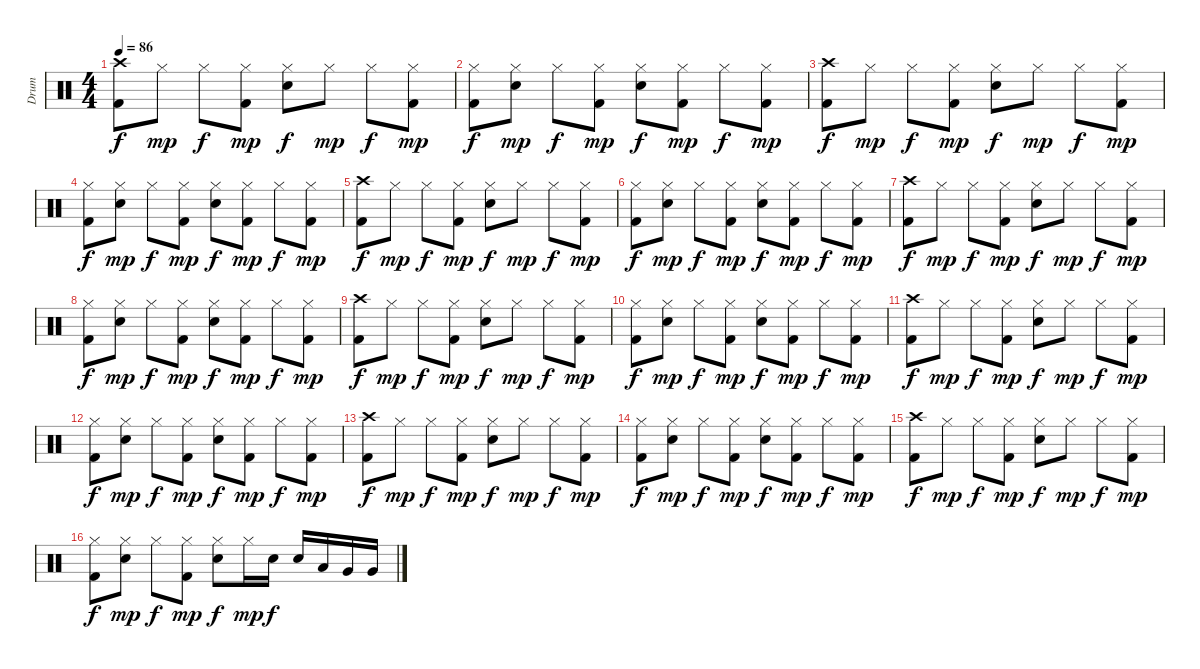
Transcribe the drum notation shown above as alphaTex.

\track ("Drum" "Drum") {instrument percussion}
\staff {score}
\articulation defaults
\ts (4 4)
\tempo 86
\clef neutral
\ks c
("Crash high (hit)" "Kick (hit) 2").8{dy f} "Hi-Hat (closed)".8{dy mp} "Hi-Hat (closed)".8{dy f} ("Hi-Hat (closed)" "Kick (hit) 2").8{dy mp} ("Hi-Hat (closed)" "Electric Snare (hit)").8{dy f} "Hi-Hat (closed)".8{dy mp} "Hi-Hat (closed)".8{dy f} ("Hi-Hat (closed)" "Kick (hit) 2").8{dy mp} |
("Hi-Hat (closed)" "Kick (hit) 2").8{dy f} ("Hi-Hat (closed)" "Electric Snare (hit)").8{dy mp} "Hi-Hat (closed)".8{dy f} ("Hi-Hat (closed)" "Kick (hit) 2").8{dy mp} ("Hi-Hat (closed)" "Electric Snare (hit)").8{dy f} ("Hi-Hat (closed)" "Kick (hit) 2").8{dy mp} "Hi-Hat (closed)".8{dy f} ("Hi-Hat (closed)" "Kick (hit) 2").8{dy mp} |
("Crash high (hit)" "Kick (hit) 2").8{dy f} "Hi-Hat (closed)".8{dy mp} "Hi-Hat (closed)".8{dy f} ("Hi-Hat (closed)" "Kick (hit) 2").8{dy mp} ("Hi-Hat (closed)" "Electric Snare (hit)").8{dy f} "Hi-Hat (closed)".8{dy mp} "Hi-Hat (closed)".8{dy f} ("Hi-Hat (closed)" "Kick (hit) 2").8{dy mp} |
("Hi-Hat (closed)" "Kick (hit) 2").8{dy f} ("Hi-Hat (closed)" "Electric Snare (hit)").8{dy mp} "Hi-Hat (closed)".8{dy f} ("Hi-Hat (closed)" "Kick (hit) 2").8{dy mp} ("Hi-Hat (closed)" "Electric Snare (hit)").8{dy f} ("Hi-Hat (closed)" "Kick (hit) 2").8{dy mp} "Hi-Hat (closed)".8{dy f} ("Hi-Hat (closed)" "Kick (hit) 2").8{dy mp} |
("Crash high (hit)" "Kick (hit) 2").8{dy f} "Hi-Hat (closed)".8{dy mp} "Hi-Hat (closed)".8{dy f} ("Hi-Hat (closed)" "Kick (hit) 2").8{dy mp} ("Hi-Hat (closed)" "Electric Snare (hit)").8{dy f} "Hi-Hat (closed)".8{dy mp} "Hi-Hat (closed)".8{dy f} ("Hi-Hat (closed)" "Kick (hit) 2").8{dy mp} |
("Hi-Hat (closed)" "Kick (hit) 2").8{dy f} ("Hi-Hat (closed)" "Electric Snare (hit)").8{dy mp} "Hi-Hat (closed)".8{dy f} ("Hi-Hat (closed)" "Kick (hit) 2").8{dy mp} ("Hi-Hat (closed)" "Electric Snare (hit)").8{dy f} ("Hi-Hat (closed)" "Kick (hit) 2").8{dy mp} "Hi-Hat (closed)".8{dy f} ("Hi-Hat (closed)" "Kick (hit) 2").8{dy mp} |
("Crash high (hit)" "Kick (hit) 2").8{dy f} "Hi-Hat (closed)".8{dy mp} "Hi-Hat (closed)".8{dy f} ("Hi-Hat (closed)" "Kick (hit) 2").8{dy mp} ("Hi-Hat (closed)" "Electric Snare (hit)").8{dy f} "Hi-Hat (closed)".8{dy mp} "Hi-Hat (closed)".8{dy f} ("Hi-Hat (closed)" "Kick (hit) 2").8{dy mp} |
("Hi-Hat (closed)" "Kick (hit) 2").8{dy f} ("Hi-Hat (closed)" "Electric Snare (hit)").8{dy mp} "Hi-Hat (closed)".8{dy f} ("Hi-Hat (closed)" "Kick (hit) 2").8{dy mp} ("Hi-Hat (closed)" "Electric Snare (hit)").8{dy f} ("Hi-Hat (closed)" "Kick (hit) 2").8{dy mp} "Hi-Hat (closed)".8{dy f} ("Hi-Hat (closed)" "Kick (hit) 2").8{dy mp} |
("Crash high (hit)" "Kick (hit) 2").8{dy f} "Hi-Hat (closed)".8{dy mp} "Hi-Hat (closed)".8{dy f} ("Hi-Hat (closed)" "Kick (hit) 2").8{dy mp} ("Hi-Hat (closed)" "Electric Snare (hit)").8{dy f} "Hi-Hat (closed)".8{dy mp} "Hi-Hat (closed)".8{dy f} ("Hi-Hat (closed)" "Kick (hit) 2").8{dy mp} |
("Hi-Hat (closed)" "Kick (hit) 2").8{dy f} ("Hi-Hat (closed)" "Electric Snare (hit)").8{dy mp} "Hi-Hat (closed)".8{dy f} ("Hi-Hat (closed)" "Kick (hit) 2").8{dy mp} ("Hi-Hat (closed)" "Electric Snare (hit)").8{dy f} ("Hi-Hat (closed)" "Kick (hit) 2").8{dy mp} "Hi-Hat (closed)".8{dy f} ("Hi-Hat (closed)" "Kick (hit) 2").8{dy mp} |
("Crash high (hit)" "Kick (hit) 2").8{dy f} "Hi-Hat (closed)".8{dy mp} "Hi-Hat (closed)".8{dy f} ("Hi-Hat (closed)" "Kick (hit) 2").8{dy mp} ("Hi-Hat (closed)" "Electric Snare (hit)").8{dy f} "Hi-Hat (closed)".8{dy mp} "Hi-Hat (closed)".8{dy f} ("Hi-Hat (closed)" "Kick (hit) 2").8{dy mp} |
("Hi-Hat (closed)" "Kick (hit) 2").8{dy f} ("Hi-Hat (closed)" "Electric Snare (hit)").8{dy mp} "Hi-Hat (closed)".8{dy f} ("Hi-Hat (closed)" "Kick (hit) 2").8{dy mp} ("Hi-Hat (closed)" "Electric Snare (hit)").8{dy f} ("Hi-Hat (closed)" "Kick (hit) 2").8{dy mp} "Hi-Hat (closed)".8{dy f} ("Hi-Hat (closed)" "Kick (hit) 2").8{dy mp} |
("Crash high (hit)" "Kick (hit) 2").8{dy f} "Hi-Hat (closed)".8{dy mp} "Hi-Hat (closed)".8{dy f} ("Hi-Hat (closed)" "Kick (hit) 2").8{dy mp} ("Hi-Hat (closed)" "Electric Snare (hit)").8{dy f} "Hi-Hat (closed)".8{dy mp} "Hi-Hat (closed)".8{dy f} ("Hi-Hat (closed)" "Kick (hit) 2").8{dy mp} |
("Hi-Hat (closed)" "Kick (hit) 2").8{dy f} ("Hi-Hat (closed)" "Electric Snare (hit)").8{dy mp} "Hi-Hat (closed)".8{dy f} ("Hi-Hat (closed)" "Kick (hit) 2").8{dy mp} ("Hi-Hat (closed)" "Electric Snare (hit)").8{dy f} ("Hi-Hat (closed)" "Kick (hit) 2").8{dy mp} "Hi-Hat (closed)".8{dy f} ("Hi-Hat (closed)" "Kick (hit) 2").8{dy mp} |
("Crash high (hit)" "Kick (hit) 2").8{dy f} "Hi-Hat (closed)".8{dy mp} "Hi-Hat (closed)".8{dy f} ("Hi-Hat (closed)" "Kick (hit) 2").8{dy mp} ("Hi-Hat (closed)" "Electric Snare (hit)").8{dy f} "Hi-Hat (closed)".8{dy mp} "Hi-Hat (closed)".8{dy f} ("Hi-Hat (closed)" "Kick (hit) 2").8{dy mp} |
("Hi-Hat (closed)" "Kick (hit) 2").8{dy f} ("Hi-Hat (closed)" "Electric Snare (hit)").8{dy mp} "Hi-Hat (closed)".8{dy f} ("Hi-Hat (closed)" "Kick (hit) 2").8{dy mp} ("Hi-Hat (closed)" "Electric Snare (hit)").8{dy f} "Hi-Hat (closed)".16{dy mp} "Electric Snare (hit)".16{dy f} "Electric Snare (hit)".16 "Low Tom (hit)".16 "Very Low Tom (hit)".16 "Very Low Tom (hit)".16
